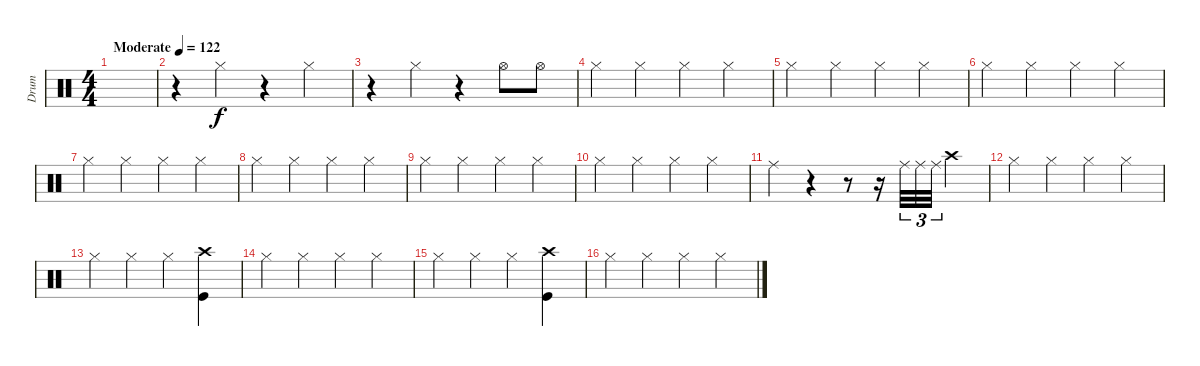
\track ("Drum" "Drum") {instrument percussion}
\staff {score}
\articulation defaults
\ts (4 4)
\tempo (122 "Moderate")
\clef neutral
\ks c
|
r.4 "Hi-Hat (closed)".4 r.4 "Hi-Hat (closed)".4 |
r.4 "Hi-Hat (closed)".4 r.4 "Hi-Hat (open)".8 "Hi-Hat (open)".8 |
"Hi-Hat (closed)".4 "Hi-Hat (closed)".4 "Hi-Hat (closed)".4 "Hi-Hat (closed)".4 |
"Hi-Hat (closed)".4 "Hi-Hat (closed)".4 "Hi-Hat (closed)".4 "Hi-Hat (closed)".4 |
"Hi-Hat (closed)".4 "Hi-Hat (closed)".4 "Hi-Hat (closed)".4 "Hi-Hat (closed)".4 |
"Hi-Hat (closed)".4 "Hi-Hat (closed)".4 "Hi-Hat (closed)".4 "Hi-Hat (closed)".4 |
"Hi-Hat (closed)".4 "Hi-Hat (closed)".4 "Hi-Hat (closed)".4 "Hi-Hat (closed)".4 |
"Hi-Hat (closed)".4 "Hi-Hat (closed)".4 "Hi-Hat (closed)".4 "Hi-Hat (closed)".4 |
"Hi-Hat (closed)".4 "Hi-Hat (closed)".4 "Hi-Hat (closed)".4 "Hi-Hat (closed)".4 |
"Ride (middle)".4 r.4 r.8 r.16 "Ride (middle)".32{tu (3 2)} "Ride (middle)".32{tu (3 2)} "Ride (middle)".32{tu (3 2)} "Crash high (hit)".4 |
"Hi-Hat (closed)".4 "Hi-Hat (closed)".4 "Hi-Hat (closed)".4 "Hi-Hat (closed)".4 |
"Hi-Hat (closed)".4 "Hi-Hat (closed)".4 "Hi-Hat (closed)".4 ("Crash high (hit)" "Kick (hit)").4 |
"Hi-Hat (closed)".4 "Hi-Hat (closed)".4 "Hi-Hat (closed)".4 "Hi-Hat (closed)".4 |
"Hi-Hat (closed)".4 "Hi-Hat (closed)".4 "Hi-Hat (closed)".4 ("Crash high (hit)" "Kick (hit)").4 |
"Hi-Hat (closed)".4 "Hi-Hat (closed)".4 "Hi-Hat (closed)".4 "Hi-Hat (closed)".4
